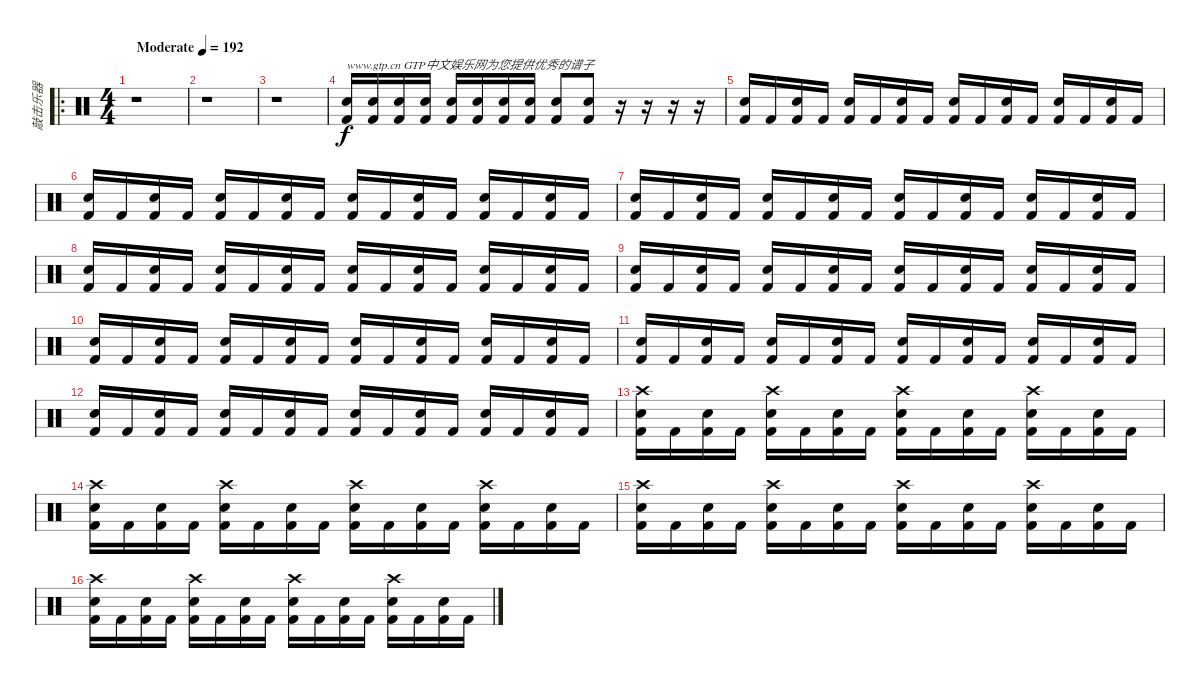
\track ("敲击乐器" "敲击乐器") {instrument percussion}
\staff {score}
\articulation defaults
\ro
\ts (4 4)
\tempo (192 "Moderate")
\clef neutral
\ks c
r.1{dy f} |
r.1 |
r.1 |
("Kick (hit) 2" "Electric Snare (hit)").16{txt "www.gtp.cn GTP中文娱乐网为您提供优秀的谱子"} ("Kick (hit) 2" "Electric Snare (hit)").16 ("Kick (hit) 2" "Electric Snare (hit)").16 ("Kick (hit) 2" "Electric Snare (hit)").16 ("Kick (hit) 2" "Electric Snare (hit)").16 ("Kick (hit) 2" "Electric Snare (hit)").16 ("Kick (hit) 2" "Electric Snare (hit)").16 ("Kick (hit) 2" "Electric Snare (hit)").16 ("Kick (hit) 2" "Electric Snare (hit)").8 ("Kick (hit) 2" "Electric Snare (hit)").8 r.16 r.16 r.16 r.16 |
("Kick (hit) 2" "Electric Snare (hit)").16 "Kick (hit) 2".16 ("Kick (hit) 2" "Electric Snare (hit)").16 "Kick (hit) 2".16 ("Kick (hit) 2" "Electric Snare (hit)").16 "Kick (hit) 2".16 ("Kick (hit) 2" "Electric Snare (hit)").16 "Kick (hit) 2".16 ("Kick (hit) 2" "Electric Snare (hit)").16 "Kick (hit) 2".16 ("Kick (hit) 2" "Electric Snare (hit)").16 "Kick (hit) 2".16 ("Kick (hit) 2" "Electric Snare (hit)").16 "Kick (hit) 2".16 ("Kick (hit) 2" "Electric Snare (hit)").16 "Kick (hit) 2".16 |
("Kick (hit) 2" "Electric Snare (hit)").16 "Kick (hit) 2".16 ("Kick (hit) 2" "Electric Snare (hit)").16 "Kick (hit) 2".16 ("Kick (hit) 2" "Electric Snare (hit)").16 "Kick (hit) 2".16 ("Kick (hit) 2" "Electric Snare (hit)").16 "Kick (hit) 2".16 ("Kick (hit) 2" "Electric Snare (hit)").16 "Kick (hit) 2".16 ("Kick (hit) 2" "Electric Snare (hit)").16 "Kick (hit) 2".16 ("Kick (hit) 2" "Electric Snare (hit)").16 "Kick (hit) 2".16 ("Kick (hit) 2" "Electric Snare (hit)").16 "Kick (hit) 2".16 |
("Kick (hit) 2" "Electric Snare (hit)").16 "Kick (hit) 2".16 ("Kick (hit) 2" "Electric Snare (hit)").16 "Kick (hit) 2".16 ("Kick (hit) 2" "Electric Snare (hit)").16 "Kick (hit) 2".16 ("Kick (hit) 2" "Electric Snare (hit)").16 "Kick (hit) 2".16 ("Kick (hit) 2" "Electric Snare (hit)").16 "Kick (hit) 2".16 ("Kick (hit) 2" "Electric Snare (hit)").16 "Kick (hit) 2".16 ("Kick (hit) 2" "Electric Snare (hit)").16 "Kick (hit) 2".16 ("Kick (hit) 2" "Electric Snare (hit)").16 "Kick (hit) 2".16 |
("Kick (hit) 2" "Electric Snare (hit)").16 "Kick (hit) 2".16 ("Kick (hit) 2" "Electric Snare (hit)").16 "Kick (hit) 2".16 ("Kick (hit) 2" "Electric Snare (hit)").16 "Kick (hit) 2".16 ("Kick (hit) 2" "Electric Snare (hit)").16 "Kick (hit) 2".16 ("Kick (hit) 2" "Electric Snare (hit)").16 "Kick (hit) 2".16 ("Kick (hit) 2" "Electric Snare (hit)").16 "Kick (hit) 2".16 ("Kick (hit) 2" "Electric Snare (hit)").16 "Kick (hit) 2".16 ("Kick (hit) 2" "Electric Snare (hit)").16 "Kick (hit) 2".16 |
("Kick (hit) 2" "Electric Snare (hit)").16 "Kick (hit) 2".16 ("Kick (hit) 2" "Electric Snare (hit)").16 "Kick (hit) 2".16 ("Kick (hit) 2" "Electric Snare (hit)").16 "Kick (hit) 2".16 ("Kick (hit) 2" "Electric Snare (hit)").16 "Kick (hit) 2".16 ("Kick (hit) 2" "Electric Snare (hit)").16 "Kick (hit) 2".16 ("Kick (hit) 2" "Electric Snare (hit)").16 "Kick (hit) 2".16 ("Kick (hit) 2" "Electric Snare (hit)").16 "Kick (hit) 2".16 ("Kick (hit) 2" "Electric Snare (hit)").16 "Kick (hit) 2".16 |
("Kick (hit) 2" "Electric Snare (hit)").16 "Kick (hit) 2".16 ("Kick (hit) 2" "Electric Snare (hit)").16 "Kick (hit) 2".16 ("Kick (hit) 2" "Electric Snare (hit)").16 "Kick (hit) 2".16 ("Kick (hit) 2" "Electric Snare (hit)").16 "Kick (hit) 2".16 ("Kick (hit) 2" "Electric Snare (hit)").16 "Kick (hit) 2".16 ("Kick (hit) 2" "Electric Snare (hit)").16 "Kick (hit) 2".16 ("Kick (hit) 2" "Electric Snare (hit)").16 "Kick (hit) 2".16 ("Kick (hit) 2" "Electric Snare (hit)").16 "Kick (hit) 2".16 |
("Kick (hit) 2" "Electric Snare (hit)").16 "Kick (hit) 2".16 ("Kick (hit) 2" "Electric Snare (hit)").16 "Kick (hit) 2".16 ("Kick (hit) 2" "Electric Snare (hit)").16 "Kick (hit) 2".16 ("Kick (hit) 2" "Electric Snare (hit)").16 "Kick (hit) 2".16 ("Kick (hit) 2" "Electric Snare (hit)").16 "Kick (hit) 2".16 ("Kick (hit) 2" "Electric Snare (hit)").16 "Kick (hit) 2".16 ("Kick (hit) 2" "Electric Snare (hit)").16 "Kick (hit) 2".16 ("Kick (hit) 2" "Electric Snare (hit)").16 "Kick (hit) 2".16 |
("Kick (hit) 2" "Electric Snare (hit)").16 "Kick (hit) 2".16 ("Kick (hit) 2" "Electric Snare (hit)").16 "Kick (hit) 2".16 ("Kick (hit) 2" "Electric Snare (hit)").16 "Kick (hit) 2".16 ("Kick (hit) 2" "Electric Snare (hit)").16 "Kick (hit) 2".16 ("Kick (hit) 2" "Electric Snare (hit)").16 "Kick (hit) 2".16 ("Kick (hit) 2" "Electric Snare (hit)").16 "Kick (hit) 2".16 ("Kick (hit) 2" "Electric Snare (hit)").16 "Kick (hit) 2".16 ("Kick (hit) 2" "Electric Snare (hit)").16 "Kick (hit) 2".16 |
("Crash high (hit)" "Kick (hit) 2" "Electric Snare (hit)").16 "Kick (hit) 2".16 ("Kick (hit) 2" "Electric Snare (hit)").16 "Kick (hit) 2".16 ("Crash high (hit)" "Kick (hit) 2" "Electric Snare (hit)").16 "Kick (hit) 2".16 ("Kick (hit) 2" "Electric Snare (hit)").16 "Kick (hit) 2".16 ("Crash high (hit)" "Kick (hit) 2" "Electric Snare (hit)").16 "Kick (hit) 2".16 ("Kick (hit) 2" "Electric Snare (hit)").16 "Kick (hit) 2".16 ("Crash high (hit)" "Kick (hit) 2" "Electric Snare (hit)").16 "Kick (hit) 2".16 ("Kick (hit) 2" "Electric Snare (hit)").16 "Kick (hit) 2".16 |
("Crash high (hit)" "Kick (hit) 2" "Electric Snare (hit)").16 "Kick (hit) 2".16 ("Kick (hit) 2" "Electric Snare (hit)").16 "Kick (hit) 2".16 ("Crash high (hit)" "Kick (hit) 2" "Electric Snare (hit)").16 "Kick (hit) 2".16 ("Kick (hit) 2" "Electric Snare (hit)").16 "Kick (hit) 2".16 ("Crash high (hit)" "Kick (hit) 2" "Electric Snare (hit)").16 "Kick (hit) 2".16 ("Kick (hit) 2" "Electric Snare (hit)").16 "Kick (hit) 2".16 ("Crash high (hit)" "Kick (hit) 2" "Electric Snare (hit)").16 "Kick (hit) 2".16 ("Kick (hit) 2" "Electric Snare (hit)").16 "Kick (hit) 2".16 |
("Crash high (hit)" "Kick (hit) 2" "Electric Snare (hit)").16 "Kick (hit) 2".16 ("Kick (hit) 2" "Electric Snare (hit)").16 "Kick (hit) 2".16 ("Crash high (hit)" "Kick (hit) 2" "Electric Snare (hit)").16 "Kick (hit) 2".16 ("Kick (hit) 2" "Electric Snare (hit)").16 "Kick (hit) 2".16 ("Crash high (hit)" "Kick (hit) 2" "Electric Snare (hit)").16 "Kick (hit) 2".16 ("Kick (hit) 2" "Electric Snare (hit)").16 "Kick (hit) 2".16 ("Crash high (hit)" "Kick (hit) 2" "Electric Snare (hit)").16 "Kick (hit) 2".16 ("Kick (hit) 2" "Electric Snare (hit)").16 "Kick (hit) 2".16 |
("Crash high (hit)" "Kick (hit) 2" "Electric Snare (hit)").16 "Kick (hit) 2".16 ("Kick (hit) 2" "Electric Snare (hit)").16 "Kick (hit) 2".16 ("Crash high (hit)" "Kick (hit) 2" "Electric Snare (hit)").16 "Kick (hit) 2".16 ("Kick (hit) 2" "Electric Snare (hit)").16 "Kick (hit) 2".16 ("Crash high (hit)" "Kick (hit) 2" "Electric Snare (hit)").16 "Kick (hit) 2".16 ("Kick (hit) 2" "Electric Snare (hit)").16 "Kick (hit) 2".16 ("Crash high (hit)" "Kick (hit) 2" "Electric Snare (hit)").16 "Kick (hit) 2".16 ("Kick (hit) 2" "Electric Snare (hit)").16 "Kick (hit) 2".16
